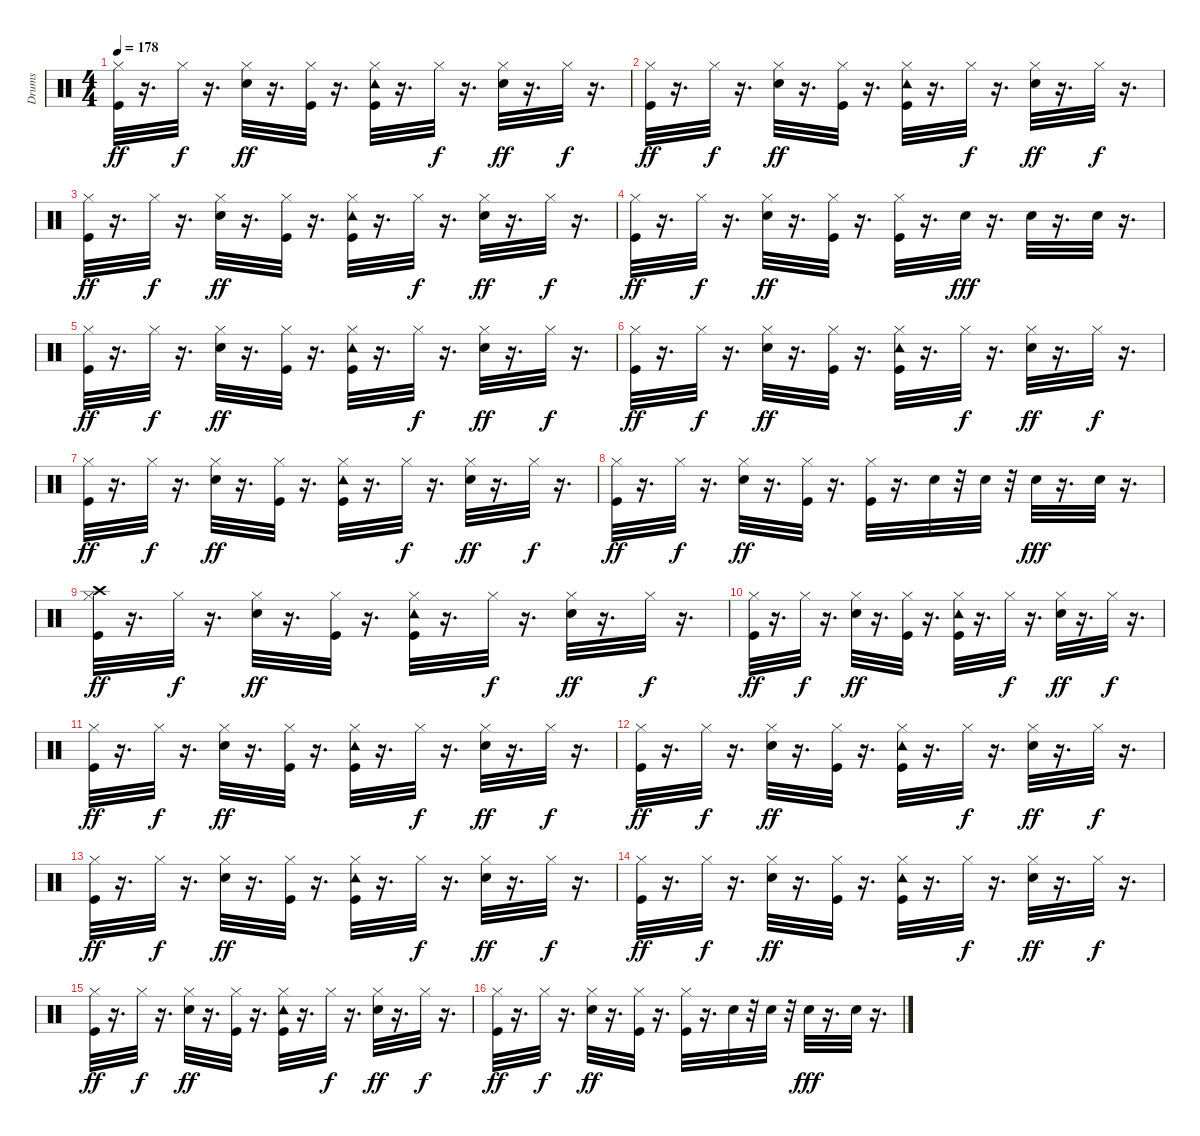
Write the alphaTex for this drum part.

\track ("Drums" "Drums") {instrument percussion}
\staff {score}
\articulation defaults
\ts (4 4)
\tempo 178
\clef neutral
\ks c
("Kick (hit)" "Hi-Hat (closed)").32{dy ff} r.16{d} "Hi-Hat (closed)".32{dy f} r.16{d} ("Snare (hit) 2" "Hi-Hat (closed)").32{dy ff} r.16{d} ("Hi-Hat (closed)" "Kick (hit)").32 r.16{d} ("Kick (hit)" "Tambourine (hit)" "Hi-Hat (closed)").32 r.16{d} "Hi-Hat (closed)".32{dy f} r.16{d} ("Snare (hit) 2" "Hi-Hat (closed)").32{dy ff} r.16{d} "Hi-Hat (closed)".32{dy f} r.16{d} |
("Kick (hit)" "Hi-Hat (closed)").32{dy ff} r.16{d} "Hi-Hat (closed)".32{dy f} r.16{d} ("Snare (hit) 2" "Hi-Hat (closed)").32{dy ff} r.16{d} ("Hi-Hat (closed)" "Kick (hit)").32 r.16{d} ("Kick (hit)" "Tambourine (hit)" "Hi-Hat (closed)").32 r.16{d} "Hi-Hat (closed)".32{dy f} r.16{d} ("Snare (hit) 2" "Hi-Hat (closed)").32{dy ff} r.16{d} "Hi-Hat (closed)".32{dy f} r.16{d} |
("Kick (hit)" "Hi-Hat (closed)").32{dy ff} r.16{d} "Hi-Hat (closed)".32{dy f} r.16{d} ("Snare (hit) 2" "Hi-Hat (closed)").32{dy ff} r.16{d} ("Hi-Hat (closed)" "Kick (hit)").32 r.16{d} ("Kick (hit)" "Tambourine (hit)" "Hi-Hat (closed)").32 r.16{d} "Hi-Hat (closed)".32{dy f} r.16{d} ("Snare (hit) 2" "Hi-Hat (closed)").32{dy ff} r.16{d} "Hi-Hat (closed)".32{dy f} r.16{d} |
("Kick (hit)" "Hi-Hat (closed)").32{dy ff} r.16{d} "Hi-Hat (closed)".32{dy f} r.16{d} ("Snare (hit) 2" "Hi-Hat (closed)").32{dy ff} r.16{d} ("Hi-Hat (closed)" "Kick (hit)").32 r.16{d} ("Kick (hit)" "Hi-Hat (closed)").32 r.16{d} "Snare (hit) 2".32{dy fff} r.16{d} "Snare (hit) 2".32 r.16{d} "Snare (hit) 2".32 r.16{d} |
("Kick (hit)" "Hi-Hat (closed)").32{dy ff} r.16{d} "Hi-Hat (closed)".32{dy f} r.16{d} ("Snare (hit) 2" "Hi-Hat (closed)").32{dy ff} r.16{d} ("Hi-Hat (closed)" "Kick (hit)").32 r.16{d} ("Kick (hit)" "Tambourine (hit)" "Hi-Hat (closed)").32 r.16{d} "Hi-Hat (closed)".32{dy f} r.16{d} ("Snare (hit) 2" "Hi-Hat (closed)").32{dy ff} r.16{d} "Hi-Hat (closed)".32{dy f} r.16{d} |
("Kick (hit)" "Hi-Hat (closed)").32{dy ff} r.16{d} "Hi-Hat (closed)".32{dy f} r.16{d} ("Snare (hit) 2" "Hi-Hat (closed)").32{dy ff} r.16{d} ("Hi-Hat (closed)" "Kick (hit)").32 r.16{d} ("Kick (hit)" "Tambourine (hit)" "Hi-Hat (closed)").32 r.16{d} "Hi-Hat (closed)".32{dy f} r.16{d} ("Snare (hit) 2" "Hi-Hat (closed)").32{dy ff} r.16{d} "Hi-Hat (closed)".32{dy f} r.16{d} |
("Kick (hit)" "Hi-Hat (closed)").32{dy ff} r.16{d} "Hi-Hat (closed)".32{dy f} r.16{d} ("Snare (hit) 2" "Hi-Hat (closed)").32{dy ff} r.16{d} ("Hi-Hat (closed)" "Kick (hit)").32 r.16{d} ("Kick (hit)" "Tambourine (hit)" "Hi-Hat (closed)").32 r.16{d} "Hi-Hat (closed)".32{dy f} r.16{d} ("Snare (hit) 2" "Hi-Hat (closed)").32{dy ff} r.16{d} "Hi-Hat (closed)".32{dy f} r.16{d} |
("Kick (hit)" "Hi-Hat (closed)").32{dy ff} r.16{d} "Hi-Hat (closed)".32{dy f} r.16{d} ("Snare (hit) 2" "Hi-Hat (closed)").32{dy ff} r.16{d} ("Hi-Hat (closed)" "Kick (hit)").32 r.16{d} ("Kick (hit)" "Hi-Hat (closed)").32 r.16{d} "Snare (hit) 2".32 r.32 "Snare (hit) 2".32 r.32 "Snare (hit) 2".32{dy fff} r.16{d} "Snare (hit) 2".32 r.16{d} |
("Kick (hit)" "Crash high (hit)" "Hi-Hat (closed)").32{dy ff} r.16{d} "Hi-Hat (closed)".32{dy f} r.16{d} ("Snare (hit) 2" "Hi-Hat (closed)").32{dy ff} r.16{d} ("Hi-Hat (closed)" "Kick (hit)").32 r.16{d} ("Kick (hit)" "Tambourine (hit)" "Hi-Hat (closed)").32 r.16{d} "Hi-Hat (closed)".32{dy f} r.16{d} ("Snare (hit) 2" "Hi-Hat (closed)").32{dy ff} r.16{d} "Hi-Hat (closed)".32{dy f} r.16{d} |
("Kick (hit)" "Hi-Hat (closed)").32{dy ff} r.16{d} "Hi-Hat (closed)".32{dy f} r.16{d} ("Snare (hit) 2" "Hi-Hat (closed)").32{dy ff} r.16{d} ("Hi-Hat (closed)" "Kick (hit)").32 r.16{d} ("Kick (hit)" "Tambourine (hit)" "Hi-Hat (closed)").32 r.16{d} "Hi-Hat (closed)".32{dy f} r.16{d} ("Snare (hit) 2" "Hi-Hat (closed)").32{dy ff} r.16{d} "Hi-Hat (closed)".32{dy f} r.16{d} |
("Kick (hit)" "Hi-Hat (closed)").32{dy ff} r.16{d} "Hi-Hat (closed)".32{dy f} r.16{d} ("Snare (hit) 2" "Hi-Hat (closed)").32{dy ff} r.16{d} ("Hi-Hat (closed)" "Kick (hit)").32 r.16{d} ("Kick (hit)" "Tambourine (hit)" "Hi-Hat (closed)").32 r.16{d} "Hi-Hat (closed)".32{dy f} r.16{d} ("Snare (hit) 2" "Hi-Hat (closed)").32{dy ff} r.16{d} "Hi-Hat (closed)".32{dy f} r.16{d} |
("Kick (hit)" "Hi-Hat (closed)").32{dy ff} r.16{d} "Hi-Hat (closed)".32{dy f} r.16{d} ("Snare (hit) 2" "Hi-Hat (closed)").32{dy ff} r.16{d} ("Hi-Hat (closed)" "Kick (hit)").32 r.16{d} ("Kick (hit)" "Tambourine (hit)" "Hi-Hat (closed)").32 r.16{d} "Hi-Hat (closed)".32{dy f} r.16{d} ("Snare (hit) 2" "Hi-Hat (closed)").32{dy ff} r.16{d} "Hi-Hat (closed)".32{dy f} r.16{d} |
("Kick (hit)" "Hi-Hat (closed)").32{dy ff} r.16{d} "Hi-Hat (closed)".32{dy f} r.16{d} ("Snare (hit) 2" "Hi-Hat (closed)").32{dy ff} r.16{d} ("Hi-Hat (closed)" "Kick (hit)").32 r.16{d} ("Kick (hit)" "Tambourine (hit)" "Hi-Hat (closed)").32 r.16{d} "Hi-Hat (closed)".32{dy f} r.16{d} ("Snare (hit) 2" "Hi-Hat (closed)").32{dy ff} r.16{d} "Hi-Hat (closed)".32{dy f} r.16{d} |
("Kick (hit)" "Hi-Hat (closed)").32{dy ff} r.16{d} "Hi-Hat (closed)".32{dy f} r.16{d} ("Snare (hit) 2" "Hi-Hat (closed)").32{dy ff} r.16{d} ("Hi-Hat (closed)" "Kick (hit)").32 r.16{d} ("Kick (hit)" "Tambourine (hit)" "Hi-Hat (closed)").32 r.16{d} "Hi-Hat (closed)".32{dy f} r.16{d} ("Snare (hit) 2" "Hi-Hat (closed)").32{dy ff} r.16{d} "Hi-Hat (closed)".32{dy f} r.16{d} |
("Kick (hit)" "Hi-Hat (closed)").32{dy ff} r.16{d} "Hi-Hat (closed)".32{dy f} r.16{d} ("Snare (hit) 2" "Hi-Hat (closed)").32{dy ff} r.16{d} ("Hi-Hat (closed)" "Kick (hit)").32 r.16{d} ("Kick (hit)" "Tambourine (hit)" "Hi-Hat (closed)").32 r.16{d} "Hi-Hat (closed)".32{dy f} r.16{d} ("Snare (hit) 2" "Hi-Hat (closed)").32{dy ff} r.16{d} "Hi-Hat (closed)".32{dy f} r.16{d} |
("Kick (hit)" "Hi-Hat (closed)").32{dy ff} r.16{d} "Hi-Hat (closed)".32{dy f} r.16{d} ("Snare (hit) 2" "Hi-Hat (closed)").32{dy ff} r.16{d} ("Hi-Hat (closed)" "Kick (hit)").32 r.16{d} ("Kick (hit)" "Hi-Hat (closed)").32 r.16{d} "Snare (hit) 2".32 r.32 "Snare (hit) 2".32 r.32 "Snare (hit) 2".32{dy fff} r.16{d} "Snare (hit) 2".32 r.16{d}
